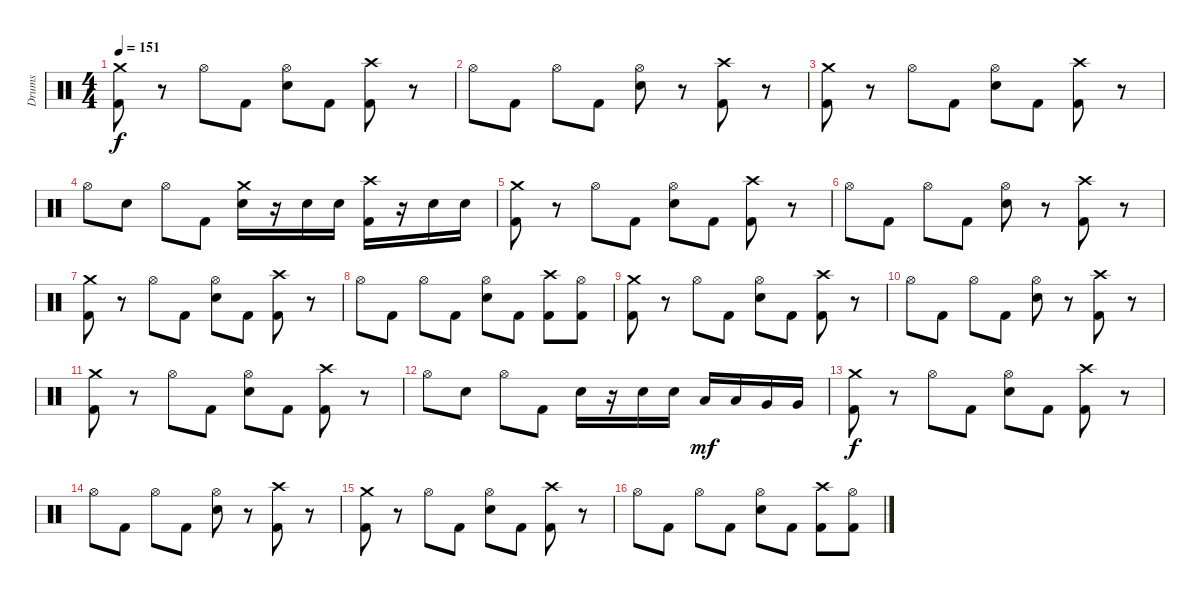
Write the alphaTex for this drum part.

\track ("Drums" "Drums") {instrument percussion}
\staff {score}
\articulation defaults
\ts (4 4)
\tempo 151
\clef neutral
\ks c
("Crash medium (hit)" "Kick (hit) 2").8{dy f} r.8 "Hi-Hat (open)".8 "Kick (hit) 2".8 ("Hi-Hat (open)" "Snare (hit) 2").8 "Kick (hit) 2".8 ("Crash high (hit)" "Kick (hit) 2").8 r.8 |
"Hi-Hat (open)".8 "Kick (hit) 2".8 "Hi-Hat (open)".8 "Kick (hit) 2".8 ("Hi-Hat (open)" "Snare (hit) 2").8 r.8 ("Crash high (hit)" "Kick (hit) 2").8 r.8 |
("Crash medium (hit)" "Kick (hit) 2").8 r.8 "Hi-Hat (open)".8 "Kick (hit) 2".8 ("Hi-Hat (open)" "Snare (hit) 2").8 "Kick (hit) 2".8 ("Crash high (hit)" "Kick (hit) 2").8 r.8 |
"Hi-Hat (open)".8 "Snare (hit) 2".8 "Hi-Hat (open)".8 "Kick (hit) 2".8 ("Crash medium (hit)" "Snare (hit) 2").16 r.16 "Snare (hit) 2".16 "Snare (hit) 2".16 ("Crash high (hit)" "Kick (hit) 2").16 r.16 "Snare (hit) 2".16 "Snare (hit) 2".16 |
("Crash medium (hit)" "Kick (hit) 2").8 r.8 "Hi-Hat (open)".8 "Kick (hit) 2".8 ("Hi-Hat (open)" "Snare (hit) 2").8 "Kick (hit) 2".8 ("Crash high (hit)" "Kick (hit) 2").8 r.8 |
"Hi-Hat (open)".8 "Kick (hit) 2".8 "Hi-Hat (open)".8 "Kick (hit) 2".8 ("Hi-Hat (open)" "Snare (hit) 2").8 r.8 ("Crash high (hit)" "Kick (hit) 2").8 r.8 |
("Crash medium (hit)" "Kick (hit) 2").8 r.8 "Hi-Hat (open)".8 "Kick (hit) 2".8 ("Hi-Hat (open)" "Snare (hit) 2").8 "Kick (hit) 2".8 ("Crash high (hit)" "Kick (hit) 2").8 r.8 |
"Hi-Hat (open)".8 "Kick (hit) 2".8 "Hi-Hat (open)".8 "Kick (hit) 2".8 ("Hi-Hat (open)" "Snare (hit) 2").8 "Kick (hit) 2".8 ("Crash high (hit)" "Kick (hit) 2").8 ("Hi-Hat (open)" "Kick (hit) 2").8 |
("Crash medium (hit)" "Kick (hit) 2").8 r.8 "Hi-Hat (open)".8 "Kick (hit) 2".8 ("Hi-Hat (open)" "Snare (hit) 2").8 "Kick (hit) 2".8 ("Crash high (hit)" "Kick (hit) 2").8 r.8 |
"Hi-Hat (open)".8 "Kick (hit) 2".8 "Hi-Hat (open)".8 "Kick (hit) 2".8 ("Hi-Hat (open)" "Snare (hit) 2").8 r.8 ("Crash high (hit)" "Kick (hit) 2").8 r.8 |
("Crash medium (hit)" "Kick (hit) 2").8 r.8 "Hi-Hat (open)".8 "Kick (hit) 2".8 ("Hi-Hat (open)" "Snare (hit) 2").8 "Kick (hit) 2".8 ("Crash high (hit)" "Kick (hit) 2").8 r.8 |
"Hi-Hat (open)".8 "Snare (hit) 2".8 "Hi-Hat (open)".8 "Kick (hit) 2".8 "Snare (hit) 2".16 r.16 "Snare (hit) 2".16 "Snare (hit) 2".16 "Low Tom (hit)".16{dy mf} "Low Tom (hit)".16 "Very Low Tom (hit)".16 "Very Low Tom (hit)".16 |
("Crash medium (hit)" "Kick (hit) 2").8{dy f} r.8 "Hi-Hat (open)".8 "Kick (hit) 2".8 ("Hi-Hat (open)" "Snare (hit) 2").8 "Kick (hit) 2".8 ("Crash high (hit)" "Kick (hit) 2").8 r.8 |
"Hi-Hat (open)".8 "Kick (hit) 2".8 "Hi-Hat (open)".8 "Kick (hit) 2".8 ("Hi-Hat (open)" "Snare (hit) 2").8 r.8 ("Crash high (hit)" "Kick (hit) 2").8 r.8 |
("Crash medium (hit)" "Kick (hit) 2").8 r.8 "Hi-Hat (open)".8 "Kick (hit) 2".8 ("Hi-Hat (open)" "Snare (hit) 2").8 "Kick (hit) 2".8 ("Crash high (hit)" "Kick (hit) 2").8 r.8 |
"Hi-Hat (open)".8 "Kick (hit) 2".8 "Hi-Hat (open)".8 "Kick (hit) 2".8 ("Hi-Hat (open)" "Snare (hit) 2").8 "Kick (hit) 2".8 ("Crash high (hit)" "Kick (hit) 2").8 ("Hi-Hat (open)" "Kick (hit) 2").8
